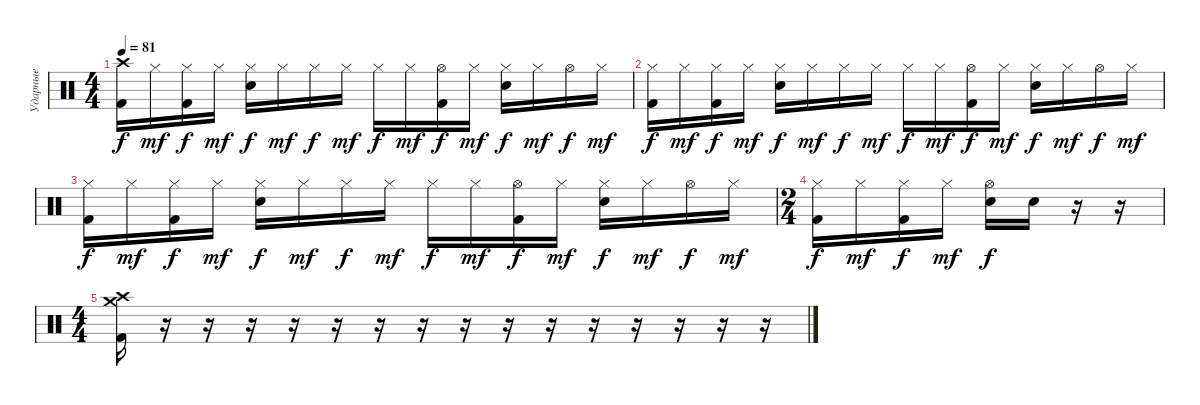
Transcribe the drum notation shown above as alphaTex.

\track ("Ударные" "Ударные") {instrument percussion}
\staff {score}
\articulation defaults
\ts (4 4)
\tempo 81
\clef neutral
\ks c
("Crash high (hit)" "Kick (hit) 2").16{dy f} "Hi-Hat (closed)".16{dy mf} ("Hi-Hat (closed)" "Kick (hit) 2").16{dy f} "Hi-Hat (closed)".16{dy mf} ("Hi-Hat (closed)" "Electric Snare (hit)").16{dy f} "Hi-Hat (closed)".16{dy mf} "Hi-Hat (closed)".16{dy f} "Hi-Hat (closed)".16{dy mf} "Hi-Hat (closed)".16{dy f} "Hi-Hat (closed)".16{dy mf} ("Hi-Hat (open)" "Kick (hit) 2").16{dy f} "Hi-Hat (closed)".16{dy mf} ("Hi-Hat (closed)" "Electric Snare (hit)").16{dy f} "Hi-Hat (closed)".16{dy mf} "Hi-Hat (open)".16{dy f} "Hi-Hat (closed)".16{dy mf} |
("Hi-Hat (closed)" "Kick (hit) 2").16{dy f} "Hi-Hat (closed)".16{dy mf} ("Hi-Hat (closed)" "Kick (hit) 2").16{dy f} "Hi-Hat (closed)".16{dy mf} ("Hi-Hat (closed)" "Electric Snare (hit)").16{dy f} "Hi-Hat (closed)".16{dy mf} "Hi-Hat (closed)".16{dy f} "Hi-Hat (closed)".16{dy mf} "Hi-Hat (closed)".16{dy f} "Hi-Hat (closed)".16{dy mf} ("Hi-Hat (open)" "Kick (hit) 2").16{dy f} "Hi-Hat (closed)".16{dy mf} ("Hi-Hat (closed)" "Electric Snare (hit)").16{dy f} "Hi-Hat (closed)".16{dy mf} "Hi-Hat (open)".16{dy f} "Hi-Hat (closed)".16{dy mf} |
("Hi-Hat (closed)" "Kick (hit) 2").16{dy f} "Hi-Hat (closed)".16{dy mf} ("Hi-Hat (closed)" "Kick (hit) 2").16{dy f} "Hi-Hat (closed)".16{dy mf} ("Hi-Hat (closed)" "Electric Snare (hit)").16{dy f} "Hi-Hat (closed)".16{dy mf} "Hi-Hat (closed)".16{dy f} "Hi-Hat (closed)".16{dy mf} "Hi-Hat (closed)".16{dy f} "Hi-Hat (closed)".16{dy mf} ("Hi-Hat (open)" "Kick (hit) 2").16{dy f} "Hi-Hat (closed)".16{dy mf} ("Hi-Hat (closed)" "Electric Snare (hit)").16{dy f} "Hi-Hat (closed)".16{dy mf} "Hi-Hat (open)".16{dy f} "Hi-Hat (closed)".16{dy mf} |
\ts (2 4)
("Hi-Hat (closed)" "Kick (hit) 2").16{dy f} "Hi-Hat (closed)".16{dy mf} ("Hi-Hat (closed)" "Kick (hit) 2").16{dy f} "Hi-Hat (closed)".16{dy mf} ("Hi-Hat (open)" "Electric Snare (hit)").16{dy f} "Electric Snare (hit)".16 r.16 r.16 |
\ts (4 4)
("Crash high (hit)" "Crash medium (hit)" "Kick (hit) 2").16 r.16 r.16 r.16 r.16 r.16 r.16 r.16 r.16 r.16 r.16 r.16 r.16 r.16 r.16 r.16
